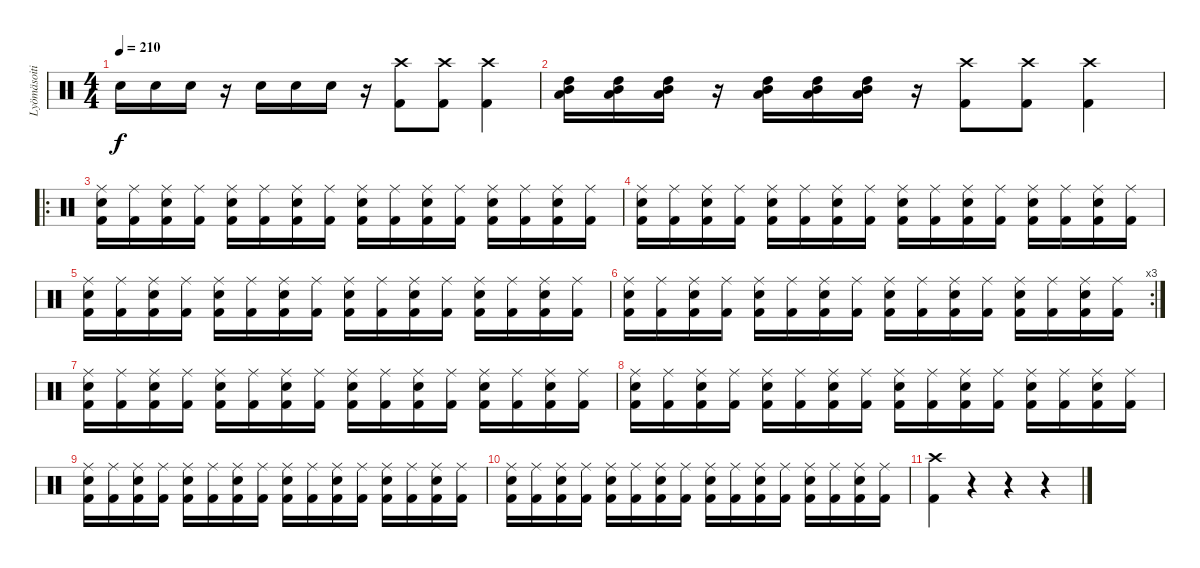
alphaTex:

\track ("Lyömäsoitin" "Lyömäsoiti") {instrument percussion}
\staff {score}
\articulation defaults
\ts (4 4)
\tempo 210
\clef neutral
\ks c "Electric Snare (hit)".16{dy f} "Electric Snare (hit)".16 "Electric Snare (hit)".16
r.16 "Electric Snare (hit)".16 "Electric Snare (hit)".16 "Electric Snare (hit)".16 r.16 ("Crash high (hit)" "Kick (hit) 2").8 ("Crash high (hit)" "Kick (hit) 2").8 ("Crash high (hit)" "Kick (hit) 2").4 |
("High Tom (hit)" "Mid Tom (hit)" "Low Floor Tom (hit)").16 ("High Tom (hit)" "Mid Tom (hit)" "Low Floor Tom (hit)").16 ("High Tom (hit)" "Mid Tom (hit)" "Low Floor Tom (hit)").16 r.16 ("High Tom (hit)" "Mid Tom (hit)" "Low Floor Tom (hit)").16 ("High Tom (hit)" "Mid Tom (hit)" "Low Floor Tom (hit)").16 ("High Tom (hit)" "Mid Tom (hit)" "Low Floor Tom (hit)").16 r.16 ("Crash high (hit)" "Kick (hit) 2").8 ("Crash high (hit)" "Kick (hit) 2").8 ("Crash high (hit)" "Kick (hit) 2").4 |
\ro
("Ride (middle)" "Electric Snare (hit)" "Kick (hit) 2").16 ("Ride (middle)" "Kick (hit) 2").16 ("Ride (middle)" "Electric Snare (hit)" "Kick (hit) 2").16 ("Ride (middle)" "Kick (hit) 2").16 ("Ride (middle)" "Electric Snare (hit)" "Kick (hit) 2").16 ("Ride (middle)" "Kick (hit) 2").16 ("Ride (middle)" "Electric Snare (hit)" "Kick (hit) 2").16 ("Ride (middle)" "Kick (hit) 2").16 ("Ride (middle)" "Electric Snare (hit)" "Kick (hit) 2").16 ("Ride (middle)" "Kick (hit) 2").16 ("Ride (middle)" "Electric Snare (hit)" "Kick (hit) 2").16 ("Ride (middle)" "Kick (hit) 2").16 ("Ride (middle)" "Electric Snare (hit)" "Kick (hit) 2").16 ("Ride (middle)" "Kick (hit) 2").16 ("Ride (middle)" "Electric Snare (hit)" "Kick (hit) 2").16 ("Ride (middle)" "Kick (hit) 2").16 |
("Ride (middle)" "Electric Snare (hit)" "Kick (hit) 2").16 ("Ride (middle)" "Kick (hit) 2").16 ("Ride (middle)" "Electric Snare (hit)" "Kick (hit) 2").16 ("Ride (middle)" "Kick (hit) 2").16 ("Ride (middle)" "Electric Snare (hit)" "Kick (hit) 2").16 ("Ride (middle)" "Kick (hit) 2").16 ("Ride (middle)" "Electric Snare (hit)" "Kick (hit) 2").16 ("Ride (middle)" "Kick (hit) 2").16 ("Ride (middle)" "Electric Snare (hit)" "Kick (hit) 2").16 ("Ride (middle)" "Kick (hit) 2").16 ("Ride (middle)" "Electric Snare (hit)" "Kick (hit) 2").16 ("Ride (middle)" "Kick (hit) 2").16 ("Ride (middle)" "Electric Snare (hit)" "Kick (hit) 2").16 ("Ride (middle)" "Kick (hit) 2").16 ("Ride (middle)" "Electric Snare (hit)" "Kick (hit) 2").16 ("Ride (middle)" "Kick (hit) 2").16 |
("Ride (middle)" "Electric Snare (hit)" "Kick (hit) 2").16 ("Ride (middle)" "Kick (hit) 2").16 ("Ride (middle)" "Electric Snare (hit)" "Kick (hit) 2").16 ("Ride (middle)" "Kick (hit) 2").16 ("Ride (middle)" "Electric Snare (hit)" "Kick (hit) 2").16 ("Ride (middle)" "Kick (hit) 2").16 ("Ride (middle)" "Electric Snare (hit)" "Kick (hit) 2").16 ("Ride (middle)" "Kick (hit) 2").16 ("Ride (middle)" "Electric Snare (hit)" "Kick (hit) 2").16 ("Ride (middle)" "Kick (hit) 2").16 ("Ride (middle)" "Electric Snare (hit)" "Kick (hit) 2").16 ("Ride (middle)" "Kick (hit) 2").16 ("Ride (middle)" "Electric Snare (hit)" "Kick (hit) 2").16 ("Ride (middle)" "Kick (hit) 2").16 ("Ride (middle)" "Electric Snare (hit)" "Kick (hit) 2").16 ("Ride (middle)" "Kick (hit) 2").16 |
\rc 3
("Ride (middle)" "Electric Snare (hit)" "Kick (hit) 2").16 ("Ride (middle)" "Kick (hit) 2").16 ("Ride (middle)" "Electric Snare (hit)" "Kick (hit) 2").16 ("Ride (middle)" "Kick (hit) 2").16 ("Ride (middle)" "Electric Snare (hit)" "Kick (hit) 2").16 ("Ride (middle)" "Kick (hit) 2").16 ("Ride (middle)" "Electric Snare (hit)" "Kick (hit) 2").16 ("Ride (middle)" "Kick (hit) 2").16 ("Ride (middle)" "Electric Snare (hit)" "Kick (hit) 2").16 ("Ride (middle)" "Kick (hit) 2").16 ("Ride (middle)" "Electric Snare (hit)" "Kick (hit) 2").16 ("Ride (middle)" "Kick (hit) 2").16 ("Ride (middle)" "Electric Snare (hit)" "Kick (hit) 2").16 ("Ride (middle)" "Kick (hit) 2").16 ("Ride (middle)" "Electric Snare (hit)" "Kick (hit) 2").16 ("Ride (middle)" "Kick (hit) 2").16 |
("Ride (middle)" "Electric Snare (hit)" "Kick (hit) 2").16 ("Ride (middle)" "Kick (hit) 2").16 ("Ride (middle)" "Electric Snare (hit)" "Kick (hit) 2").16 ("Ride (middle)" "Kick (hit) 2").16 ("Ride (middle)" "Electric Snare (hit)" "Kick (hit) 2").16 ("Ride (middle)" "Kick (hit) 2").16 ("Ride (middle)" "Electric Snare (hit)" "Kick (hit) 2").16 ("Ride (middle)" "Kick (hit) 2").16 ("Ride (middle)" "Electric Snare (hit)" "Kick (hit) 2").16 ("Ride (middle)" "Kick (hit) 2").16 ("Ride (middle)" "Electric Snare (hit)" "Kick (hit) 2").16 ("Ride (middle)" "Kick (hit) 2").16 ("Ride (middle)" "Electric Snare (hit)" "Kick (hit) 2").16 ("Ride (middle)" "Kick (hit) 2").16 ("Ride (middle)" "Electric Snare (hit)" "Kick (hit) 2").16 ("Ride (middle)" "Kick (hit) 2").16 |
("Ride (middle)" "Electric Snare (hit)" "Kick (hit) 2").16 ("Ride (middle)" "Kick (hit) 2").16 ("Ride (middle)" "Electric Snare (hit)" "Kick (hit) 2").16 ("Ride (middle)" "Kick (hit) 2").16 ("Ride (middle)" "Electric Snare (hit)" "Kick (hit) 2").16 ("Ride (middle)" "Kick (hit) 2").16 ("Ride (middle)" "Electric Snare (hit)" "Kick (hit) 2").16 ("Ride (middle)" "Kick (hit) 2").16 ("Ride (middle)" "Electric Snare (hit)" "Kick (hit) 2").16 ("Ride (middle)" "Kick (hit) 2").16 ("Ride (middle)" "Electric Snare (hit)" "Kick (hit) 2").16 ("Ride (middle)" "Kick (hit) 2").16 ("Ride (middle)" "Electric Snare (hit)" "Kick (hit) 2").16 ("Ride (middle)" "Kick (hit) 2").16 ("Ride (middle)" "Electric Snare (hit)" "Kick (hit) 2").16 ("Ride (middle)" "Kick (hit) 2").16 |
("Ride (middle)" "Electric Snare (hit)" "Kick (hit) 2").16 ("Ride (middle)" "Kick (hit) 2").16 ("Ride (middle)" "Electric Snare (hit)" "Kick (hit) 2").16 ("Ride (middle)" "Kick (hit) 2").16 ("Ride (middle)" "Electric Snare (hit)" "Kick (hit) 2").16 ("Ride (middle)" "Kick (hit) 2").16 ("Ride (middle)" "Electric Snare (hit)" "Kick (hit) 2").16 ("Ride (middle)" "Kick (hit) 2").16 ("Ride (middle)" "Electric Snare (hit)" "Kick (hit) 2").16 ("Ride (middle)" "Kick (hit) 2").16 ("Ride (middle)" "Electric Snare (hit)" "Kick (hit) 2").16 ("Ride (middle)" "Kick (hit) 2").16 ("Ride (middle)" "Electric Snare (hit)" "Kick (hit) 2").16 ("Ride (middle)" "Kick (hit) 2").16 ("Ride (middle)" "Electric Snare (hit)" "Kick (hit) 2").16 ("Ride (middle)" "Kick (hit) 2").16 |
("Ride (middle)" "Electric Snare (hit)" "Kick (hit) 2").16 ("Ride (middle)" "Kick (hit) 2").16 ("Ride (middle)" "Electric Snare (hit)" "Kick (hit) 2").16 ("Ride (middle)" "Kick (hit) 2").16 ("Ride (middle)" "Electric Snare (hit)" "Kick (hit) 2").16 ("Ride (middle)" "Kick (hit) 2").16 ("Ride (middle)" "Electric Snare (hit)" "Kick (hit) 2").16 ("Ride (middle)" "Kick (hit) 2").16 ("Ride (middle)" "Electric Snare (hit)" "Kick (hit) 2").16 ("Ride (middle)" "Kick (hit) 2").16 ("Ride (middle)" "Electric Snare (hit)" "Kick (hit) 2").16 ("Ride (middle)" "Kick (hit) 2").16 ("Ride (middle)" "Electric Snare (hit)" "Kick (hit) 2").16 ("Ride (middle)" "Kick (hit) 2").16 ("Ride (middle)" "Electric Snare (hit)" "Kick (hit) 2").16 ("Ride (middle)" "Kick (hit) 2").16 |
("Crash high (hit)" "Kick (hit) 2").4 r.4 r.4 r.4
